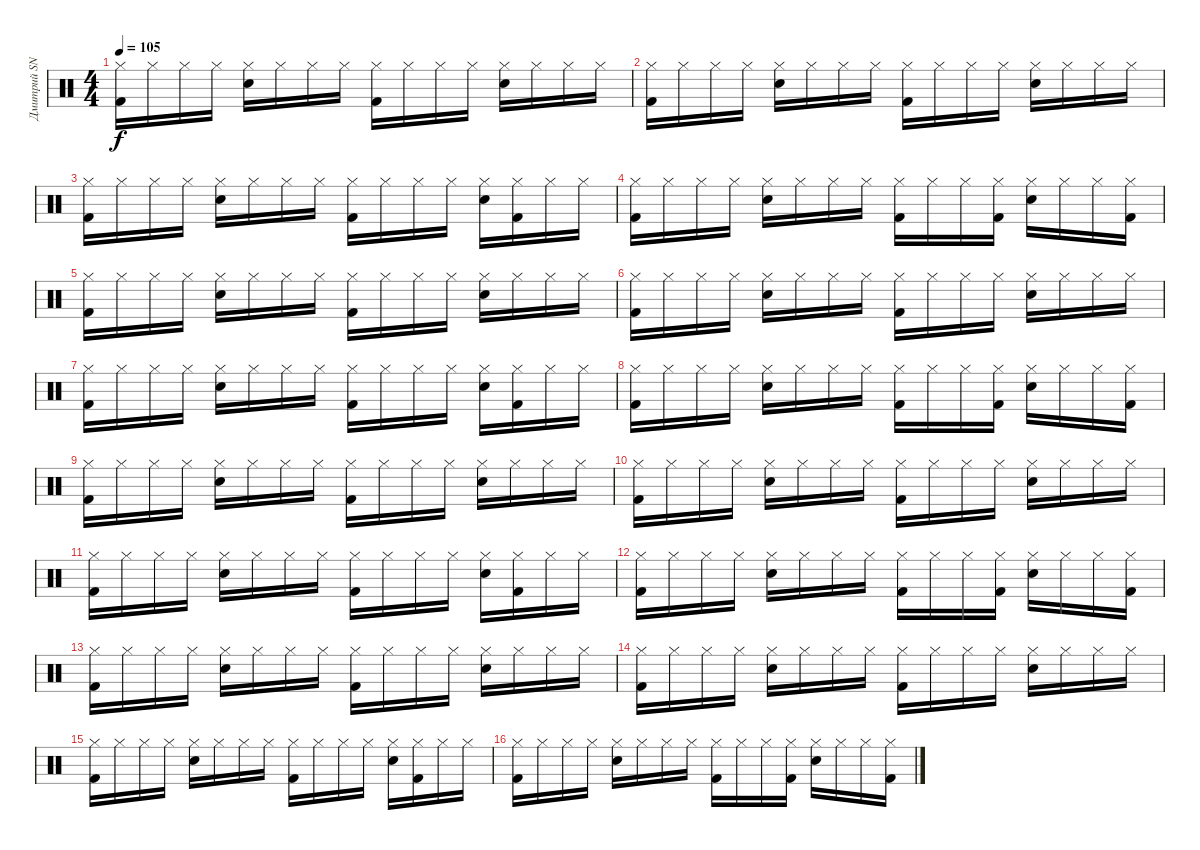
\track ("Дмитрий SNAKE Хакимов (ударные)" "Дмитрий SN") {instrument percussion}
\staff {score}
\articulation defaults
\ts (4 4)
\tempo 105
\clef neutral
\ks c
("Hi-Hat (closed)" "Kick (hit) 2").16{dy f} "Hi-Hat (closed)".16 "Hi-Hat (closed)".16 "Hi-Hat (closed)".16 ("Hi-Hat (closed)" "Snare (hit) 2").16 "Hi-Hat (closed)".16 "Hi-Hat (closed)".16 "Hi-Hat (closed)".16 ("Hi-Hat (closed)" "Kick (hit) 2").16 "Hi-Hat (closed)".16 "Hi-Hat (closed)".16 "Hi-Hat (closed)".16 ("Hi-Hat (closed)" "Snare (hit) 2").16 "Hi-Hat (closed)".16 "Hi-Hat (closed)".16 "Hi-Hat (closed)".16 |
("Hi-Hat (closed)" "Kick (hit) 2").16 "Hi-Hat (closed)".16 "Hi-Hat (closed)".16 "Hi-Hat (closed)".16 ("Hi-Hat (closed)" "Snare (hit) 2").16 "Hi-Hat (closed)".16 "Hi-Hat (closed)".16 "Hi-Hat (closed)".16 ("Hi-Hat (closed)" "Kick (hit) 2").16 "Hi-Hat (closed)".16 "Hi-Hat (closed)".16 "Hi-Hat (closed)".16 ("Hi-Hat (closed)" "Snare (hit) 2").16 "Hi-Hat (closed)".16 "Hi-Hat (closed)".16 "Hi-Hat (closed)".16 |
("Hi-Hat (closed)" "Kick (hit) 2").16 "Hi-Hat (closed)".16 "Hi-Hat (closed)".16 "Hi-Hat (closed)".16 ("Hi-Hat (closed)" "Snare (hit) 2").16 "Hi-Hat (closed)".16 "Hi-Hat (closed)".16 "Hi-Hat (closed)".16 ("Hi-Hat (closed)" "Kick (hit) 2").16 "Hi-Hat (closed)".16 "Hi-Hat (closed)".16 "Hi-Hat (closed)".16 ("Hi-Hat (closed)" "Snare (hit) 2").16 ("Hi-Hat (closed)" "Kick (hit) 2").16 "Hi-Hat (closed)".16 "Hi-Hat (closed)".16 |
("Hi-Hat (closed)" "Kick (hit) 2").16 "Hi-Hat (closed)".16 "Hi-Hat (closed)".16 "Hi-Hat (closed)".16 ("Hi-Hat (closed)" "Snare (hit) 2").16 "Hi-Hat (closed)".16 "Hi-Hat (closed)".16 "Hi-Hat (closed)".16 ("Hi-Hat (closed)" "Kick (hit) 2").16 "Hi-Hat (closed)".16 "Hi-Hat (closed)".16 ("Hi-Hat (closed)" "Kick (hit) 2").16 ("Hi-Hat (closed)" "Snare (hit) 2").16 "Hi-Hat (closed)".16 "Hi-Hat (closed)".16 ("Hi-Hat (closed)" "Kick (hit) 2").16 |
("Hi-Hat (closed)" "Kick (hit) 2").16 "Hi-Hat (closed)".16 "Hi-Hat (closed)".16 "Hi-Hat (closed)".16 ("Hi-Hat (closed)" "Snare (hit) 2").16 "Hi-Hat (closed)".16 "Hi-Hat (closed)".16 "Hi-Hat (closed)".16 ("Hi-Hat (closed)" "Kick (hit) 2").16 "Hi-Hat (closed)".16 "Hi-Hat (closed)".16 "Hi-Hat (closed)".16 ("Hi-Hat (closed)" "Snare (hit) 2").16 "Hi-Hat (closed)".16 "Hi-Hat (closed)".16 "Hi-Hat (closed)".16 |
("Hi-Hat (closed)" "Kick (hit) 2").16 "Hi-Hat (closed)".16 "Hi-Hat (closed)".16 "Hi-Hat (closed)".16 ("Hi-Hat (closed)" "Snare (hit) 2").16 "Hi-Hat (closed)".16 "Hi-Hat (closed)".16 "Hi-Hat (closed)".16 ("Hi-Hat (closed)" "Kick (hit) 2").16 "Hi-Hat (closed)".16 "Hi-Hat (closed)".16 "Hi-Hat (closed)".16 ("Hi-Hat (closed)" "Snare (hit) 2").16 "Hi-Hat (closed)".16 "Hi-Hat (closed)".16 "Hi-Hat (closed)".16 |
("Hi-Hat (closed)" "Kick (hit) 2").16 "Hi-Hat (closed)".16 "Hi-Hat (closed)".16 "Hi-Hat (closed)".16 ("Hi-Hat (closed)" "Snare (hit) 2").16 "Hi-Hat (closed)".16 "Hi-Hat (closed)".16 "Hi-Hat (closed)".16 ("Hi-Hat (closed)" "Kick (hit) 2").16 "Hi-Hat (closed)".16 "Hi-Hat (closed)".16 "Hi-Hat (closed)".16 ("Hi-Hat (closed)" "Snare (hit) 2").16 ("Hi-Hat (closed)" "Kick (hit) 2").16 "Hi-Hat (closed)".16 "Hi-Hat (closed)".16 |
("Hi-Hat (closed)" "Kick (hit) 2").16 "Hi-Hat (closed)".16 "Hi-Hat (closed)".16 "Hi-Hat (closed)".16 ("Hi-Hat (closed)" "Snare (hit) 2").16 "Hi-Hat (closed)".16 "Hi-Hat (closed)".16 "Hi-Hat (closed)".16 ("Hi-Hat (closed)" "Kick (hit) 2").16 "Hi-Hat (closed)".16 "Hi-Hat (closed)".16 ("Hi-Hat (closed)" "Kick (hit) 2").16 ("Hi-Hat (closed)" "Snare (hit) 2").16 "Hi-Hat (closed)".16 "Hi-Hat (closed)".16 ("Hi-Hat (closed)" "Kick (hit) 2").16 |
("Hi-Hat (closed)" "Kick (hit) 2").16 "Hi-Hat (closed)".16 "Hi-Hat (closed)".16 "Hi-Hat (closed)".16 ("Hi-Hat (closed)" "Snare (hit) 2").16 "Hi-Hat (closed)".16 "Hi-Hat (closed)".16 "Hi-Hat (closed)".16 ("Hi-Hat (closed)" "Kick (hit) 2").16 "Hi-Hat (closed)".16 "Hi-Hat (closed)".16 "Hi-Hat (closed)".16 ("Hi-Hat (closed)" "Snare (hit) 2").16 "Hi-Hat (closed)".16 "Hi-Hat (closed)".16 "Hi-Hat (closed)".16 |
("Hi-Hat (closed)" "Kick (hit) 2").16 "Hi-Hat (closed)".16 "Hi-Hat (closed)".16 "Hi-Hat (closed)".16 ("Hi-Hat (closed)" "Snare (hit) 2").16 "Hi-Hat (closed)".16 "Hi-Hat (closed)".16 "Hi-Hat (closed)".16 ("Hi-Hat (closed)" "Kick (hit) 2").16 "Hi-Hat (closed)".16 "Hi-Hat (closed)".16 "Hi-Hat (closed)".16 ("Hi-Hat (closed)" "Snare (hit) 2").16 "Hi-Hat (closed)".16 "Hi-Hat (closed)".16 "Hi-Hat (closed)".16 |
("Hi-Hat (closed)" "Kick (hit) 2").16 "Hi-Hat (closed)".16 "Hi-Hat (closed)".16 "Hi-Hat (closed)".16 ("Hi-Hat (closed)" "Snare (hit) 2").16 "Hi-Hat (closed)".16 "Hi-Hat (closed)".16 "Hi-Hat (closed)".16 ("Hi-Hat (closed)" "Kick (hit) 2").16 "Hi-Hat (closed)".16 "Hi-Hat (closed)".16 "Hi-Hat (closed)".16 ("Hi-Hat (closed)" "Snare (hit) 2").16 ("Hi-Hat (closed)" "Kick (hit) 2").16 "Hi-Hat (closed)".16 "Hi-Hat (closed)".16 |
("Hi-Hat (closed)" "Kick (hit) 2").16 "Hi-Hat (closed)".16 "Hi-Hat (closed)".16 "Hi-Hat (closed)".16 ("Hi-Hat (closed)" "Snare (hit) 2").16 "Hi-Hat (closed)".16 "Hi-Hat (closed)".16 "Hi-Hat (closed)".16 ("Hi-Hat (closed)" "Kick (hit) 2").16 "Hi-Hat (closed)".16 "Hi-Hat (closed)".16 ("Hi-Hat (closed)" "Kick (hit) 2").16 ("Hi-Hat (closed)" "Snare (hit) 2").16 "Hi-Hat (closed)".16 "Hi-Hat (closed)".16 ("Hi-Hat (closed)" "Kick (hit) 2").16 |
("Hi-Hat (closed)" "Kick (hit) 2").16 "Hi-Hat (closed)".16 "Hi-Hat (closed)".16 "Hi-Hat (closed)".16 ("Hi-Hat (closed)" "Snare (hit) 2").16 "Hi-Hat (closed)".16 "Hi-Hat (closed)".16 "Hi-Hat (closed)".16 ("Hi-Hat (closed)" "Kick (hit) 2").16 "Hi-Hat (closed)".16 "Hi-Hat (closed)".16 "Hi-Hat (closed)".16 ("Hi-Hat (closed)" "Snare (hit) 2").16 "Hi-Hat (closed)".16 "Hi-Hat (closed)".16 "Hi-Hat (closed)".16 |
("Hi-Hat (closed)" "Kick (hit) 2").16 "Hi-Hat (closed)".16 "Hi-Hat (closed)".16 "Hi-Hat (closed)".16 ("Hi-Hat (closed)" "Snare (hit) 2").16 "Hi-Hat (closed)".16 "Hi-Hat (closed)".16 "Hi-Hat (closed)".16 ("Hi-Hat (closed)" "Kick (hit) 2").16 "Hi-Hat (closed)".16 "Hi-Hat (closed)".16 "Hi-Hat (closed)".16 ("Hi-Hat (closed)" "Snare (hit) 2").16 "Hi-Hat (closed)".16 "Hi-Hat (closed)".16 "Hi-Hat (closed)".16 |
("Hi-Hat (closed)" "Kick (hit) 2").16 "Hi-Hat (closed)".16 "Hi-Hat (closed)".16 "Hi-Hat (closed)".16 ("Hi-Hat (closed)" "Snare (hit) 2").16 "Hi-Hat (closed)".16 "Hi-Hat (closed)".16 "Hi-Hat (closed)".16 ("Hi-Hat (closed)" "Kick (hit) 2").16 "Hi-Hat (closed)".16 "Hi-Hat (closed)".16 "Hi-Hat (closed)".16 ("Hi-Hat (closed)" "Snare (hit) 2").16 ("Hi-Hat (closed)" "Kick (hit) 2").16 "Hi-Hat (closed)".16 "Hi-Hat (closed)".16 |
("Hi-Hat (closed)" "Kick (hit) 2").16 "Hi-Hat (closed)".16 "Hi-Hat (closed)".16 "Hi-Hat (closed)".16 ("Hi-Hat (closed)" "Snare (hit) 2").16 "Hi-Hat (closed)".16 "Hi-Hat (closed)".16 "Hi-Hat (closed)".16 ("Hi-Hat (closed)" "Kick (hit) 2").16 "Hi-Hat (closed)".16 "Hi-Hat (closed)".16 ("Hi-Hat (closed)" "Kick (hit) 2").16 ("Hi-Hat (closed)" "Snare (hit) 2").16 "Hi-Hat (closed)".16 "Hi-Hat (closed)".16 ("Hi-Hat (closed)" "Kick (hit) 2").16
